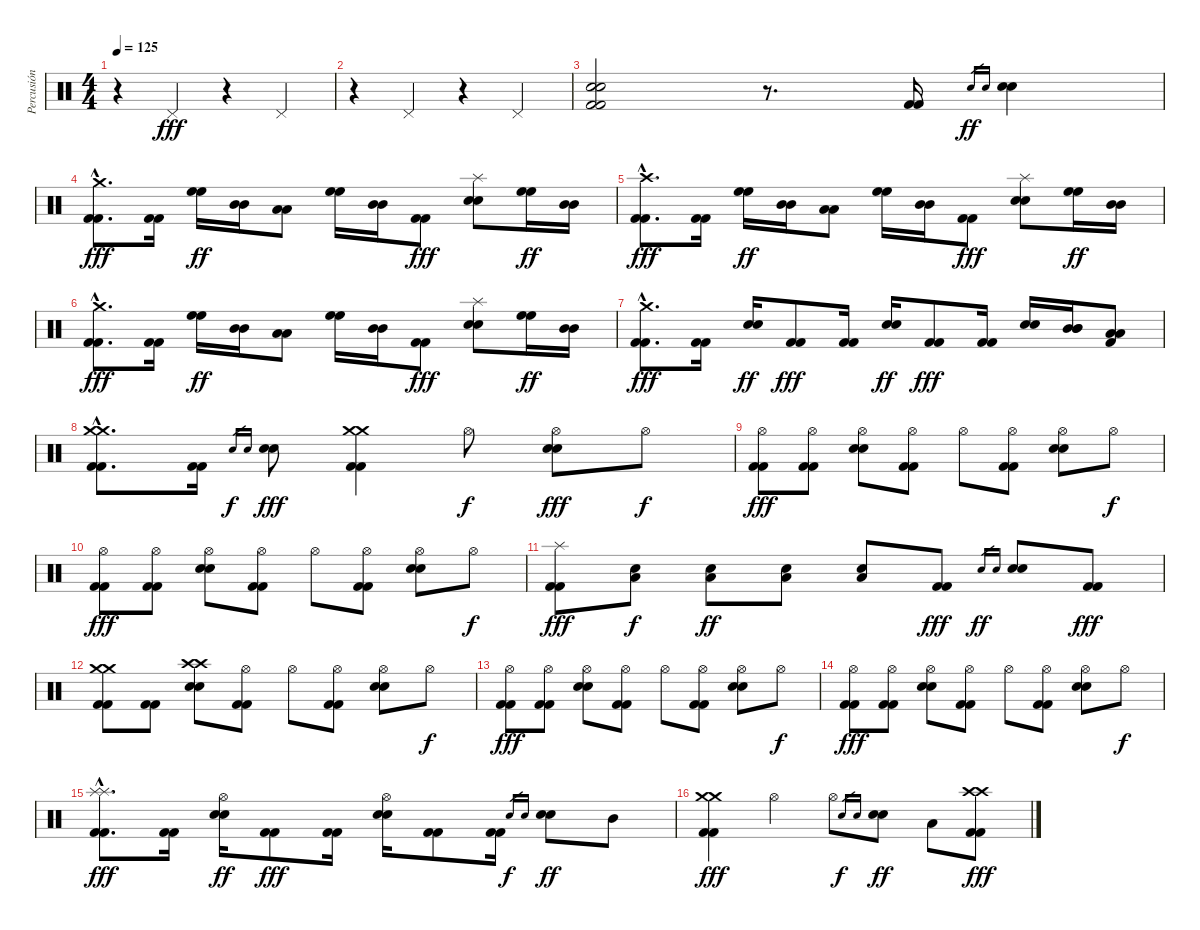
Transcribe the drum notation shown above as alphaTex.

\track ("Percusión" "Percusión") {instrument percussion}
\staff {score}
\articulation defaults
\ts (4 4)
\tempo 125
\clef neutral
\ks c
r.4{dy fff} "Pedal Hi-Hat (hit)".4 r.4 "Pedal Hi-Hat (hit)".4 |
r.4 "Pedal Hi-Hat (hit)".4 r.4 "Pedal Hi-Hat (hit)".4 |
("Electric Snare (hit)" "Electric Snare (hit)" "Kick (hit) 2" "Kick (hit) 2").2 r.8{d} ("Kick (hit) 2" "Kick (hit) 2").16 "Electric Snare (hit)".16{gr dy ff} "Electric Snare (hit)".16{gr} ("Electric Snare (hit)" "Electric Snare (hit)").4 |
("Crash medium (hit)"{hac} "Kick (hit) 2"{hac} "Kick (hit) 2"{hac}).8{d dy fff} ("Kick (hit) 2" "Kick (hit) 2").16 ("High Floor Tom (hit)" "High Floor Tom (hit)").16{dy ff} ("Mid Tom (hit)" "Mid Tom (hit)").16 ("Low Tom (hit)" "Low Tom (hit)").8 ("High Floor Tom (hit)" "High Floor Tom (hit)").16 ("Mid Tom (hit)" "Mid Tom (hit)").16 ("Kick (hit) 2" "Kick (hit) 2").8{dy fff} ("Splash (hit)" "Electric Snare (hit)" "Electric Snare (hit)").8 ("High Floor Tom (hit)" "High Floor Tom (hit)").16{dy ff} ("Mid Tom (hit)" "Mid Tom (hit)").16 |
("Crash high (hit)"{hac} "Kick (hit) 2"{hac} "Kick (hit) 2"{hac}).8{d dy fff} ("Kick (hit) 2" "Kick (hit) 2").16 ("High Floor Tom (hit)" "High Floor Tom (hit)").16{dy ff} ("Mid Tom (hit)" "Mid Tom (hit)").16 ("Low Tom (hit)" "Low Tom (hit)").8 ("High Floor Tom (hit)" "High Floor Tom (hit)").16 ("Mid Tom (hit)" "Mid Tom (hit)").16 ("Kick (hit) 2" "Kick (hit) 2").8{dy fff} ("Splash (hit)" "Electric Snare (hit)" "Electric Snare (hit)").8 ("High Floor Tom (hit)" "High Floor Tom (hit)").16{dy ff} ("Mid Tom (hit)" "Mid Tom (hit)").16 |
("Crash medium (hit)"{hac} "Kick (hit) 2"{hac} "Kick (hit) 2"{hac}).8{d dy fff} ("Kick (hit) 2" "Kick (hit) 2").16 ("High Floor Tom (hit)" "High Floor Tom (hit)").16{dy ff} ("Mid Tom (hit)" "Mid Tom (hit)").16 ("Low Tom (hit)" "Low Tom (hit)").8 ("High Floor Tom (hit)" "High Floor Tom (hit)").16 ("Mid Tom (hit)" "Mid Tom (hit)").16 ("Kick (hit) 2" "Kick (hit) 2").8{dy fff} ("Splash (hit)" "Electric Snare (hit)" "Electric Snare (hit)").8 ("High Floor Tom (hit)" "High Floor Tom (hit)").16{dy ff} ("Mid Tom (hit)" "Mid Tom (hit)").16 |
("Crash medium (hit)"{hac} "Kick (hit) 2"{hac} "Kick (hit) 2"{hac}).8{d dy fff} ("Kick (hit) 2" "Kick (hit) 2").16 ("Electric Snare (hit)" "Electric Snare (hit)").16{dy ff} ("Kick (hit) 2" "Kick (hit) 2").8{dy fff} ("Kick (hit) 2" "Kick (hit) 2").16 ("Electric Snare (hit)" "Electric Snare (hit)").16{dy ff} ("Kick (hit) 2" "Kick (hit) 2").8{dy fff} ("Kick (hit) 2" "Kick (hit) 2").16 ("Electric Snare (hit)" "Electric Snare (hit)").16 ("Mid Tom (hit)" "Mid Tom (hit)" "Mid Tom (hit)").16 ("Low Tom (hit)" "Low Tom (hit)" "Kick (hit) 2").8 |
("Crash medium (hit)"{hac} "Crash medium (hit)"{hac} "Kick (hit) 2"{hac} "Kick (hit) 2"{hac}).8{d} ("Kick (hit) 2" "Kick (hit) 2").16 "Electric Snare (hit)".16{gr dy f} "Electric Snare (hit)".16{gr} ("Electric Snare (hit)" "Electric Snare (hit)").8{dy fff} ("Crash medium (hit)" "Crash medium (hit)" "Kick (hit) 2" "Kick (hit) 2").4 "Hi-Hat (open)".8{dy f} ("Hi-Hat (open)" "Electric Snare (hit)" "Electric Snare (hit)").8{dy fff} "Hi-Hat (open)".8{dy f} |
("Hi-Hat (open)" "Kick (hit) 2" "Kick (hit) 2").8{dy fff} ("Hi-Hat (open)" "Kick (hit) 2" "Kick (hit) 2").8 ("Hi-Hat (open)" "Electric Snare (hit)" "Electric Snare (hit)").8 ("Hi-Hat (open)" "Kick (hit) 2" "Kick (hit) 2").8 "Hi-Hat (open)".8 ("Hi-Hat (open)" "Kick (hit) 2" "Kick (hit) 2").8 ("Hi-Hat (open)" "Electric Snare (hit)" "Electric Snare (hit)").8 "Hi-Hat (open)".8{dy f} |
("Hi-Hat (open)" "Kick (hit) 2" "Kick (hit) 2").8{dy fff} ("Hi-Hat (open)" "Kick (hit) 2" "Kick (hit) 2").8 ("Hi-Hat (open)" "Electric Snare (hit)" "Electric Snare (hit)").8 ("Hi-Hat (open)" "Kick (hit) 2" "Kick (hit) 2").8 "Hi-Hat (open)".8 ("Hi-Hat (open)" "Kick (hit) 2" "Kick (hit) 2").8 ("Hi-Hat (open)" "Electric Snare (hit)" "Electric Snare (hit)").8 "Hi-Hat (open)".8{dy f} |
("Splash (hit)" "Kick (hit) 2" "Kick (hit) 2").8{dy fff} ("Electric Snare (hit)" "Low Tom (hit)").8{dy f} ("Electric Snare (hit)" "Low Tom (hit)").8{dy ff} ("Electric Snare (hit)" "Low Tom (hit)").8 ("Electric Snare (hit)" "Low Tom (hit)").8 ("Kick (hit) 2" "Kick (hit) 2").8{dy fff} "Electric Snare (hit)".16{gr dy ff} "Electric Snare (hit)".16{gr} ("Electric Snare (hit)" "Electric Snare (hit)").8 ("Kick (hit) 2" "Kick (hit) 2").8{dy fff} |
("Crash medium (hit)" "Crash medium (hit)" "Kick (hit) 2" "Kick (hit) 2").8 ("Kick (hit) 2" "Kick (hit) 2").8 ("Crash high (hit)" "Crash high (hit)" "Electric Snare (hit)" "Electric Snare (hit)").8 ("Hi-Hat (open)" "Kick (hit) 2" "Kick (hit) 2").8 "Hi-Hat (open)".8 ("Hi-Hat (open)" "Kick (hit) 2" "Kick (hit) 2").8 ("Hi-Hat (open)" "Electric Snare (hit)" "Electric Snare (hit)").8 "Hi-Hat (open)".8{dy f} |
("Hi-Hat (open)" "Kick (hit) 2" "Kick (hit) 2").8{dy fff} ("Hi-Hat (open)" "Kick (hit) 2" "Kick (hit) 2").8 ("Hi-Hat (open)" "Electric Snare (hit)" "Electric Snare (hit)").8 ("Hi-Hat (open)" "Kick (hit) 2" "Kick (hit) 2").8 "Hi-Hat (open)".8 ("Hi-Hat (open)" "Kick (hit) 2" "Kick (hit) 2").8 ("Hi-Hat (open)" "Electric Snare (hit)" "Electric Snare (hit)").8 "Hi-Hat (open)".8{dy f} |
("Hi-Hat (open)" "Kick (hit) 2" "Kick (hit) 2").8{dy fff} ("Hi-Hat (open)" "Kick (hit) 2" "Kick (hit) 2").8 ("Hi-Hat (open)" "Electric Snare (hit)" "Electric Snare (hit)").8 ("Hi-Hat (open)" "Kick (hit) 2" "Kick (hit) 2").8 "Hi-Hat (open)".8 ("Hi-Hat (open)" "Kick (hit) 2" "Kick (hit) 2").8 ("Hi-Hat (open)" "Electric Snare (hit)" "Electric Snare (hit)").8 "Hi-Hat (open)".8{dy f} |
("Splash (hit)"{hac} "Splash (hit)"{hac} "Kick (hit) 2"{hac} "Kick (hit) 2"{hac}).8{d dy fff} ("Kick (hit) 2" "Kick (hit) 2").16 ("Hi-Hat (open)" "Electric Snare (hit)" "Electric Snare (hit)").16{dy ff} ("Kick (hit) 2" "Kick (hit) 2").8{dy fff} ("Kick (hit) 2" "Kick (hit) 2").16 ("Hi-Hat (open)" "Electric Snare (hit)" "Electric Snare (hit)").16 ("Kick (hit) 2" "Kick (hit) 2").8 ("Kick (hit) 2" "Kick (hit) 2").16 "Electric Snare (hit)".16{gr dy f} "Electric Snare (hit)".16{gr} ("Electric Snare (hit)" "Electric Snare (hit)").8{dy ff} "Mid Tom (hit)".8 |
("Crash medium (hit)" "Crash medium (hit)" "Kick (hit) 2" "Kick (hit) 2").4{dy fff} "Hi-Hat (open)".4 "Hi-Hat (open)".8 "Electric Snare (hit)".16{gr dy f} "Electric Snare (hit)".16{gr} ("Electric Snare (hit)" "Electric Snare (hit)").8{dy ff} "Low Tom (hit)".8 ("Crash high (hit)" "Crash high (hit)" "Kick (hit) 2" "Kick (hit) 2").8{dy fff}
